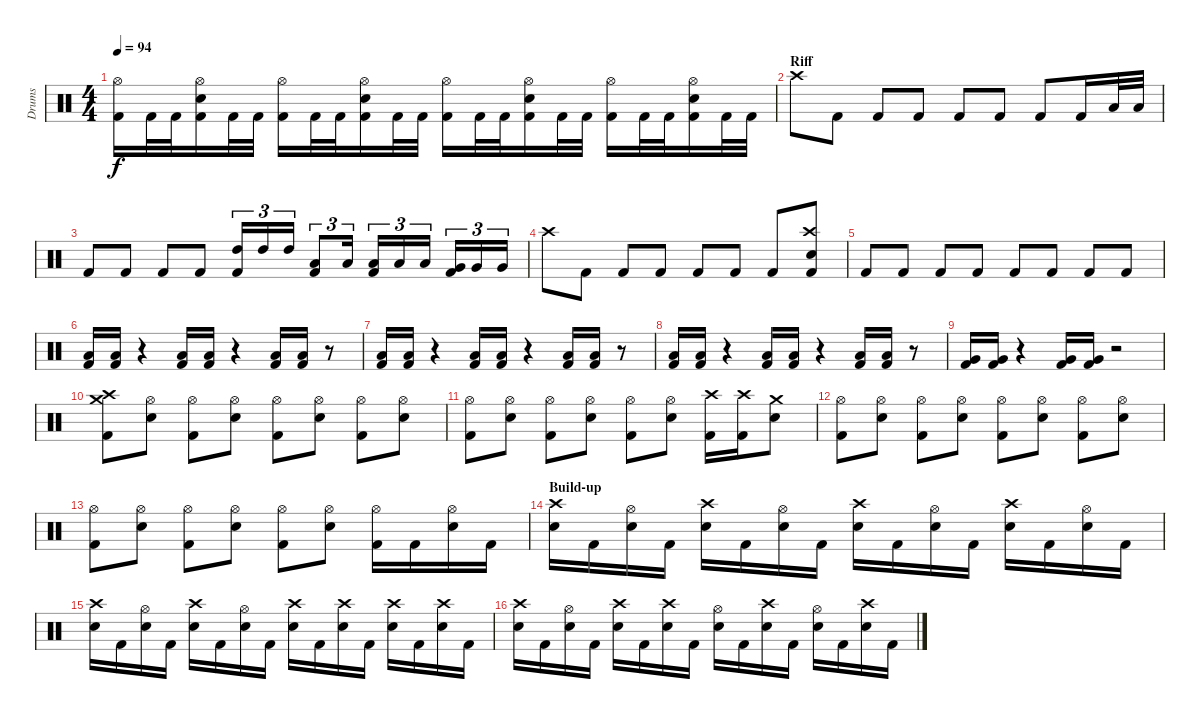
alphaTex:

\track ("Drums" "Drums") {instrument percussion}
\staff {score}
\articulation defaults
\ts (4 4)
\tempo 94
\clef neutral
\ks c
("Hi-Hat (open)" "Kick (hit) 2").16{dy f} "Kick (hit) 2".32 "Kick (hit) 2".32 ("Hi-Hat (open)" "Electric Snare (hit)" "Kick (hit) 2").16 "Kick (hit) 2".32 "Kick (hit) 2".32 ("Hi-Hat (open)" "Kick (hit) 2").16 "Kick (hit) 2".32 "Kick (hit) 2".32 ("Hi-Hat (open)" "Electric Snare (hit)" "Kick (hit) 2").16 "Kick (hit) 2".32 "Kick (hit) 2".32 ("Hi-Hat (open)" "Kick (hit) 2").16 "Kick (hit) 2".32 "Kick (hit) 2".32 ("Hi-Hat (open)" "Electric Snare (hit)" "Kick (hit) 2").16 "Kick (hit) 2".32 "Kick (hit) 2".32 ("Hi-Hat (open)" "Kick (hit) 2").16 "Kick (hit) 2".32 "Kick (hit) 2".32 ("Hi-Hat (open)" "Electric Snare (hit)" "Kick (hit) 2").16 "Kick (hit) 2".32 "Kick (hit) 2".32 |
\section ("" "Riff")
"Crash high (hit)".8 "Kick (hit) 2".8 "Kick (hit) 2".8 "Kick (hit) 2".8 "Kick (hit) 2".8 "Kick (hit) 2".8 "Kick (hit) 2".8 "Kick (hit) 2".16 "Low Tom (hit)".32 "Low Tom (hit)".32 |
"Kick (hit) 2".8 "Kick (hit) 2".8 "Kick (hit) 2".8 "Kick (hit) 2".8 ("High Tom (hit)" "Kick (hit) 2").16{tu (3 2)} "High Tom (hit)".16{tu (3 2)} "High Tom (hit)".16{tu (3 2)} ("Low Tom (hit)" "Kick (hit) 2").8{tu (3 2)} "Low Tom (hit)".16{tu (3 2)} ("Low Tom (hit)" "Kick (hit) 2").16{tu (3 2)} "Low Tom (hit)".16{tu (3 2)} "Low Tom (hit)".16{tu (3 2)} ("Very Low Tom (hit)" "Kick (hit) 2").16{tu (3 2)} "Very Low Tom (hit)".16{tu (3 2)} "Very Low Tom (hit)".16{tu (3 2)} |
"Crash high (hit)".8 "Kick (hit) 2".8 "Kick (hit) 2".8 "Kick (hit) 2".8 "Kick (hit) 2".8 "Kick (hit) 2".8 "Kick (hit) 2".8 ("Crash high (hit)" "Snare (hit) 2" "Kick (hit) 2").8 |
"Kick (hit) 2".8 "Kick (hit) 2".8 "Kick (hit) 2".8 "Kick (hit) 2".8 "Kick (hit) 2".8 "Kick (hit) 2".8 "Kick (hit) 2".8 "Kick (hit) 2".8 |
("Low Tom (hit)" "Kick (hit) 2").16 ("Low Tom (hit)" "Kick (hit) 2").16 r.4 ("Low Tom (hit)" "Kick (hit) 2").16 ("Low Tom (hit)" "Kick (hit) 2").16 r.4 ("Low Tom (hit)" "Kick (hit) 2").16 ("Low Tom (hit)" "Kick (hit) 2").16 r.8 |
("Low Tom (hit)" "Kick (hit) 2").16 ("Low Tom (hit)" "Kick (hit) 2").16 r.4 ("Low Tom (hit)" "Kick (hit) 2").16 ("Low Tom (hit)" "Kick (hit) 2").16 r.4 ("Low Tom (hit)" "Kick (hit) 2").16 ("Low Tom (hit)" "Kick (hit) 2").16 r.8 |
("Low Floor Tom (hit)" "Kick (hit) 2").16 ("Low Floor Tom (hit)" "Kick (hit) 2").16 r.4 ("Low Floor Tom (hit)" "Kick (hit) 2").16 ("Low Floor Tom (hit)" "Kick (hit) 2").16 r.4 ("Low Floor Tom (hit)" "Kick (hit) 2").16 ("Low Floor Tom (hit)" "Kick (hit) 2").16 r.8 |
("Very Low Tom (hit)" "Kick (hit) 2").16 ("Very Low Tom (hit)" "Kick (hit) 2").16 r.4 ("Very Low Tom (hit)" "Kick (hit) 2").16 ("Very Low Tom (hit)" "Kick (hit) 2").16 r.2 |
("Crash high (hit)" "Crash medium (hit)" "Kick (hit) 2").8 ("Hi-Hat (open)" "Electric Snare (hit)").8 ("Hi-Hat (open)" "Kick (hit) 2").8 ("Hi-Hat (open)" "Electric Snare (hit)").8 ("Hi-Hat (open)" "Kick (hit) 2").8 ("Hi-Hat (open)" "Electric Snare (hit)").8 ("Hi-Hat (open)" "Kick (hit) 2").8 ("Hi-Hat (open)" "Electric Snare (hit)").8 |
("Hi-Hat (open)" "Kick (hit) 2").8 ("Hi-Hat (open)" "Electric Snare (hit)").8 ("Hi-Hat (open)" "Kick (hit) 2").8 ("Hi-Hat (open)" "Electric Snare (hit)").8 ("Hi-Hat (open)" "Kick (hit) 2").8 ("Hi-Hat (open)" "Electric Snare (hit)").8 ("Crash high (hit)" "Kick (hit) 2").16 ("Crash high (hit)" "Kick (hit) 2").16 ("Crash medium (hit)" "Electric Snare (hit)").8 |
("Hi-Hat (open)" "Kick (hit) 2").8 ("Hi-Hat (open)" "Electric Snare (hit)").8 ("Hi-Hat (open)" "Kick (hit) 2").8 ("Hi-Hat (open)" "Electric Snare (hit)").8 ("Hi-Hat (open)" "Kick (hit) 2").8 ("Hi-Hat (open)" "Electric Snare (hit)").8 ("Hi-Hat (open)" "Kick (hit) 2").8 ("Hi-Hat (open)" "Electric Snare (hit)").8 |
("Hi-Hat (open)" "Kick (hit) 2").8 ("Hi-Hat (open)" "Electric Snare (hit)").8 ("Hi-Hat (open)" "Kick (hit) 2").8 ("Hi-Hat (open)" "Electric Snare (hit)").8 ("Hi-Hat (open)" "Kick (hit) 2").8 ("Hi-Hat (open)" "Electric Snare (hit)").8 ("Hi-Hat (open)" "Kick (hit) 2").16 "Kick (hit) 2".16 ("Hi-Hat (open)" "Electric Snare (hit)").16 "Kick (hit) 2".16 |
\section ("" "Build-up")
("Crash high (hit)" "Electric Snare (hit)").16 "Kick (hit) 2".16 ("Hi-Hat (open)" "Electric Snare (hit)").16 "Kick (hit) 2".16 ("Crash high (hit)" "Electric Snare (hit)").16 "Kick (hit) 2".16 ("Hi-Hat (open)" "Electric Snare (hit)").16 "Kick (hit) 2".16 ("Crash high (hit)" "Electric Snare (hit)").16 "Kick (hit) 2".16 ("Hi-Hat (open)" "Electric Snare (hit)").16 "Kick (hit) 2".16 ("Crash high (hit)" "Electric Snare (hit)").16 "Kick (hit) 2".16 ("Hi-Hat (open)" "Electric Snare (hit)").16 "Kick (hit) 2".16 |
("Crash high (hit)" "Electric Snare (hit)").16 "Kick (hit) 2".16 ("Hi-Hat (open)" "Electric Snare (hit)").16 "Kick (hit) 2".16 ("Crash high (hit)" "Electric Snare (hit)").16 "Kick (hit) 2".16 ("Hi-Hat (open)" "Electric Snare (hit)").16 "Kick (hit) 2".16 ("Crash high (hit)" "Electric Snare (hit)").16 "Kick (hit) 2".16 ("Crash high (hit)" "Electric Snare (hit)").16 "Kick (hit) 2".16 ("Crash high (hit)" "Electric Snare (hit)").16 "Kick (hit) 2".16 ("Crash high (hit)" "Electric Snare (hit)").16 "Kick (hit) 2".16 |
("Crash high (hit)" "Electric Snare (hit)").16 "Kick (hit) 2".16 ("Hi-Hat (open)" "Electric Snare (hit)").16 "Kick (hit) 2".16 ("Crash high (hit)" "Electric Snare (hit)").16 "Kick (hit) 2".16 ("Crash high (hit)" "Electric Snare (hit)").16 "Kick (hit) 2".16 ("Hi-Hat (open)" "Electric Snare (hit)").16 "Kick (hit) 2".16 ("Crash high (hit)" "Electric Snare (hit)").16 "Kick (hit) 2".16 ("Hi-Hat (open)" "Electric Snare (hit)").16 "Kick (hit) 2".16 ("Crash high (hit)" "Electric Snare (hit)").16 "Kick (hit) 2".16
